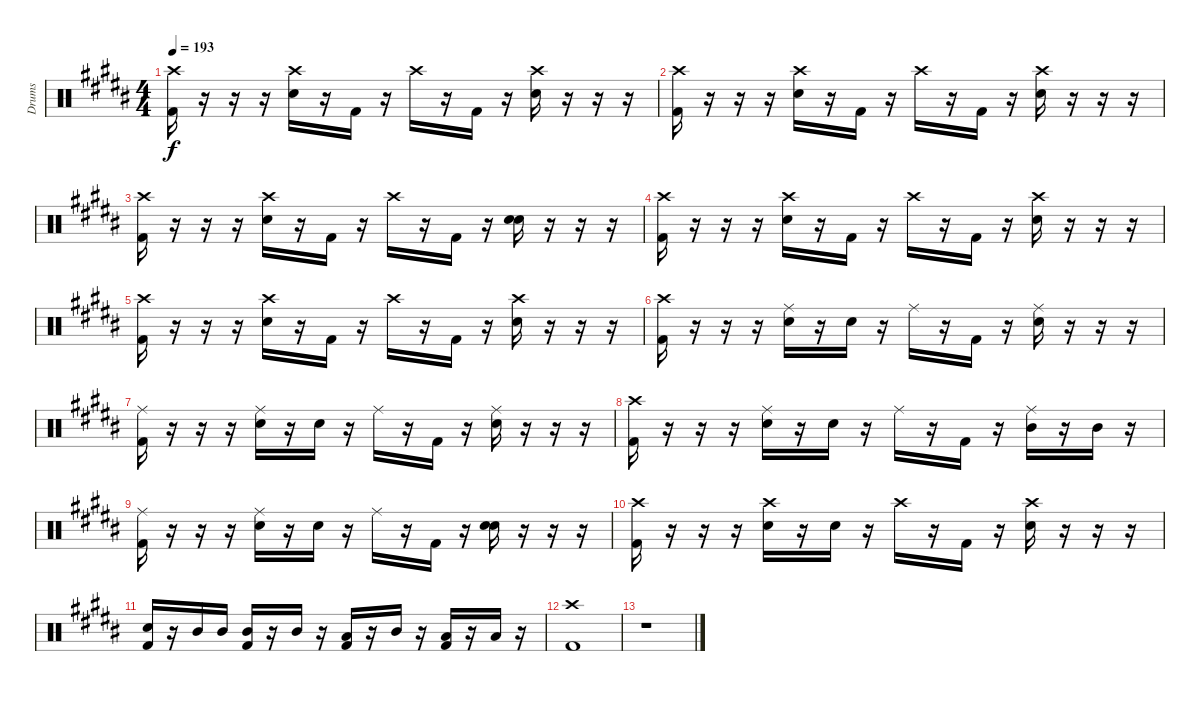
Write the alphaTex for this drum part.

\track ("Drums" "Drums") {instrument percussion}
\staff {score}
\articulation defaults
\ts (4 4)
\tempo 193
\clef neutral
\ks b
("Crash high (hit)" "Kick (hit) 2").16{dy f} r.16 r.16 r.16 ("Electric Snare (hit)" "Crash high (hit)").16 r.16 "Kick (hit) 2".16 r.16 "Crash high (hit)".16 r.16 "Kick (hit) 2".16 r.16 ("Electric Snare (hit)" "Crash high (hit)").16 r.16 r.16 r.16 |
("Crash high (hit)" "Kick (hit) 2").16 r.16 r.16 r.16 ("Electric Snare (hit)" "Crash high (hit)").16 r.16 "Kick (hit) 2".16 r.16 "Crash high (hit)".16 r.16 "Kick (hit) 2".16 r.16 ("Electric Snare (hit)" "Crash high (hit)").16 r.16 r.16 r.16 |
("Crash high (hit)" "Kick (hit) 2").16 r.16 r.16 r.16 ("Electric Snare (hit)" "Crash high (hit)").16 r.16 "Kick (hit) 2".16 r.16 "Crash high (hit)".16 r.16 "Kick (hit) 2".16 r.16 ("Electric Snare (hit)" "Electric Snare (hit)").16 r.16 r.16 r.16 |
("Crash high (hit)" "Kick (hit) 2").16 r.16 r.16 r.16 ("Electric Snare (hit)" "Crash high (hit)").16 r.16 "Kick (hit) 2".16 r.16 "Crash high (hit)".16 r.16 "Kick (hit) 2".16 r.16 ("Electric Snare (hit)" "Crash high (hit)").16 r.16 r.16 r.16 |
("Crash high (hit)" "Kick (hit) 2").16 r.16 r.16 r.16 ("Electric Snare (hit)" "Crash high (hit)").16 r.16 "Kick (hit) 2".16 r.16 "Crash high (hit)".16 r.16 "Kick (hit) 2".16 r.16 ("Electric Snare (hit)" "Crash high (hit)").16 r.16 r.16 r.16 |
("Crash high (hit)" "Kick (hit) 2").16 r.16 r.16 r.16 ("Electric Snare (hit)" "Ride (middle)").16 r.16 "Electric Snare (hit)".16 r.16 "Ride (middle)".16 r.16 "Kick (hit) 2".16 r.16 ("Electric Snare (hit)" "Ride (middle)").16 r.16 r.16 r.16 |
("Ride (middle)" "Kick (hit) 2").16 r.16 r.16 r.16 ("Electric Snare (hit)" "Ride (middle)").16 r.16 "Electric Snare (hit)".16 r.16 "Ride (middle)".16 r.16 "Kick (hit) 2".16 r.16 ("Electric Snare (hit)" "Ride (middle)").16 r.16 r.16 r.16 |
("Crash high (hit)" "Kick (hit) 2").16 r.16 r.16 r.16 ("Electric Snare (hit)" "Ride (middle)").16 r.16 "Electric Snare (hit)".16 r.16 "Ride (middle)".16 r.16 "Kick (hit) 2".16 r.16 ("Mid Tom (hit)" "Ride (middle)").16 r.16 "Mid Tom (hit)".16 r.16 |
("Ride (middle)" "Kick (hit) 2").16 r.16 r.16 r.16 ("Electric Snare (hit)" "Ride (middle)").16 r.16 "Electric Snare (hit)".16 r.16 "Ride (middle)".16 r.16 "Kick (hit) 2".16 r.16 ("Electric Snare (hit)" "Electric Snare (hit)").16 r.16 r.16 r.16 |
("Crash high (hit)" "Kick (hit) 2").16 r.16 r.16 r.16 ("Electric Snare (hit)" "Crash high (hit)").16 r.16 "Electric Snare (hit)".16 r.16 "Crash high (hit)".16 r.16 "Kick (hit) 2".16 r.16 ("Electric Snare (hit)" "Crash high (hit)").16 r.16 r.16 r.16 |
("Electric Snare (hit)" "Kick (hit) 2").16 r.16 "Mid Tom (hit)".16 "Mid Tom (hit)".16 ("Mid Tom (hit)" "Kick (hit) 2").16 r.16 "Mid Tom (hit)".16 r.16 ("Low Tom (hit)" "Kick (hit) 2").16 r.16 "Mid Tom (hit)".16 r.16 ("Low Tom (hit)" "Kick (hit) 2").16 r.16 "Low Tom (hit)".16 r.16 |
("Crash high (hit)" "Kick (hit) 2").1 |
r.1
